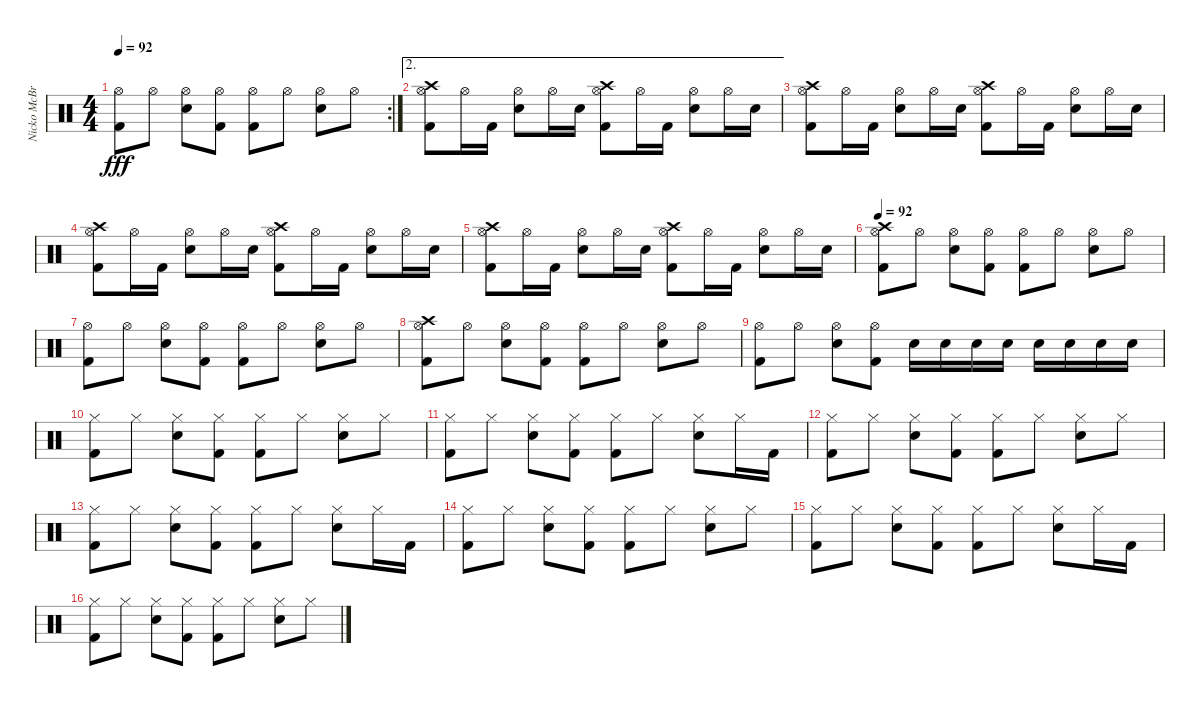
\track ("Nicko McBrain" "Nicko McBr") {instrument percussion}
\staff {score}
\articulation defaults
\rc 2
\ts (4 4)
\tempo 92
\clef neutral
\ks c
("Hi-Hat (open)" "Kick (hit) 2").8{dy fff} "Hi-Hat (open)".8 ("Hi-Hat (open)" "Snare (hit) 2").8 ("Hi-Hat (open)" "Kick (hit) 2").8 ("Hi-Hat (open)" "Kick (hit) 2").8 "Hi-Hat (open)".8 ("Hi-Hat (open)" "Snare (hit) 2").8 "Hi-Hat (open)".8 |
\ae 2
("Hi-Hat (open)" "Kick (hit) 2" "Crash high (hit)").8 "Hi-Hat (open)".16 "Kick (hit) 2".16 ("Hi-Hat (open)" "Snare (hit) 2").8 "Hi-Hat (open)".16 "Snare (hit) 2".16 ("Hi-Hat (open)" "Kick (hit) 2" "Crash high (hit)").8 "Hi-Hat (open)".16 "Kick (hit) 2".16 ("Hi-Hat (open)" "Snare (hit) 2").8 "Hi-Hat (open)".16 "Snare (hit) 2".16 |
("Hi-Hat (open)" "Kick (hit) 2" "Crash high (hit)").8 "Hi-Hat (open)".16 "Kick (hit) 2".16 ("Hi-Hat (open)" "Snare (hit) 2").8 "Hi-Hat (open)".16 "Snare (hit) 2".16 ("Hi-Hat (open)" "Kick (hit) 2" "Crash high (hit)").8 "Hi-Hat (open)".16 "Kick (hit) 2".16 ("Hi-Hat (open)" "Snare (hit) 2").8 "Hi-Hat (open)".16 "Snare (hit) 2".16 |
("Hi-Hat (open)" "Kick (hit) 2" "Crash high (hit)").8 "Hi-Hat (open)".16 "Kick (hit) 2".16 ("Hi-Hat (open)" "Snare (hit) 2").8 "Hi-Hat (open)".16 "Snare (hit) 2".16 ("Hi-Hat (open)" "Kick (hit) 2" "Crash high (hit)").8 "Hi-Hat (open)".16 "Kick (hit) 2".16 ("Hi-Hat (open)" "Snare (hit) 2").8 "Hi-Hat (open)".16 "Snare (hit) 2".16 |
("Hi-Hat (open)" "Kick (hit) 2" "Crash high (hit)").8 "Hi-Hat (open)".16 "Kick (hit) 2".16 ("Hi-Hat (open)" "Snare (hit) 2").8 "Hi-Hat (open)".16 "Snare (hit) 2".16 ("Hi-Hat (open)" "Kick (hit) 2" "Crash high (hit)").8 "Hi-Hat (open)".16 "Kick (hit) 2".16 ("Hi-Hat (open)" "Snare (hit) 2").8 "Hi-Hat (open)".16 "Snare (hit) 2".16 |
\tempo 92
("Hi-Hat (open)" "Kick (hit) 2" "Crash high (hit)").8 "Hi-Hat (open)".8 ("Hi-Hat (open)" "Snare (hit) 2").8 ("Hi-Hat (open)" "Kick (hit) 2").8 ("Hi-Hat (open)" "Kick (hit) 2").8 "Hi-Hat (open)".8 ("Hi-Hat (open)" "Snare (hit) 2").8 "Hi-Hat (open)".8 |
("Hi-Hat (open)" "Kick (hit) 2").8 "Hi-Hat (open)".8 ("Hi-Hat (open)" "Snare (hit) 2").8 ("Hi-Hat (open)" "Kick (hit) 2").8 ("Hi-Hat (open)" "Kick (hit) 2").8 "Hi-Hat (open)".8 ("Hi-Hat (open)" "Snare (hit) 2").8 "Hi-Hat (open)".8 |
("Hi-Hat (open)" "Kick (hit) 2" "Crash high (hit)").8 "Hi-Hat (open)".8 ("Hi-Hat (open)" "Snare (hit) 2").8 ("Hi-Hat (open)" "Kick (hit) 2").8 ("Hi-Hat (open)" "Kick (hit) 2").8 "Hi-Hat (open)".8 ("Hi-Hat (open)" "Snare (hit) 2").8 "Hi-Hat (open)".8 |
("Hi-Hat (open)" "Kick (hit) 2").8 "Hi-Hat (open)".8 ("Hi-Hat (open)" "Snare (hit) 2").8 ("Hi-Hat (open)" "Kick (hit) 2").8 "Snare (hit) 2".16 "Snare (hit) 2".16 "Snare (hit) 2".16 "Snare (hit) 2".16 "Snare (hit) 2".16 "Snare (hit) 2".16 "Snare (hit) 2".16 "Snare (hit) 2".16 |
("Hi-Hat (closed)" "Kick (hit) 2").8 "Hi-Hat (closed)".8 ("Hi-Hat (closed)" "Snare (hit) 2").8 ("Hi-Hat (closed)" "Kick (hit) 2").8 ("Hi-Hat (closed)" "Kick (hit) 2").8 "Hi-Hat (closed)".8 ("Hi-Hat (closed)" "Snare (hit) 2").8 "Hi-Hat (closed)".8 |
("Hi-Hat (closed)" "Kick (hit) 2").8 "Hi-Hat (closed)".8 ("Hi-Hat (closed)" "Snare (hit) 2").8 ("Hi-Hat (closed)" "Kick (hit) 2").8 ("Hi-Hat (closed)" "Kick (hit) 2").8 "Hi-Hat (closed)".8 ("Hi-Hat (closed)" "Snare (hit) 2").8 "Hi-Hat (closed)".16 "Kick (hit) 2".16 |
("Hi-Hat (closed)" "Kick (hit) 2").8 "Hi-Hat (closed)".8 ("Hi-Hat (closed)" "Snare (hit) 2").8 ("Hi-Hat (closed)" "Kick (hit) 2").8 ("Hi-Hat (closed)" "Kick (hit) 2").8 "Hi-Hat (closed)".8 ("Hi-Hat (closed)" "Snare (hit) 2").8 "Hi-Hat (closed)".8 |
("Hi-Hat (closed)" "Kick (hit) 2").8 "Hi-Hat (closed)".8 ("Hi-Hat (closed)" "Snare (hit) 2").8 ("Hi-Hat (closed)" "Kick (hit) 2").8 ("Hi-Hat (closed)" "Kick (hit) 2").8 "Hi-Hat (closed)".8 ("Hi-Hat (closed)" "Snare (hit) 2").8 "Hi-Hat (closed)".16 "Kick (hit) 2".16 |
("Hi-Hat (closed)" "Kick (hit) 2").8 "Hi-Hat (closed)".8 ("Hi-Hat (closed)" "Snare (hit) 2").8 ("Hi-Hat (closed)" "Kick (hit) 2").8 ("Hi-Hat (closed)" "Kick (hit) 2").8 "Hi-Hat (closed)".8 ("Hi-Hat (closed)" "Snare (hit) 2").8 "Hi-Hat (closed)".8 |
("Hi-Hat (closed)" "Kick (hit) 2").8 "Hi-Hat (closed)".8 ("Hi-Hat (closed)" "Snare (hit) 2").8 ("Hi-Hat (closed)" "Kick (hit) 2").8 ("Hi-Hat (closed)" "Kick (hit) 2").8 "Hi-Hat (closed)".8 ("Hi-Hat (closed)" "Snare (hit) 2").8 "Hi-Hat (closed)".16 "Kick (hit) 2".16 |
("Hi-Hat (closed)" "Kick (hit) 2").8 "Hi-Hat (closed)".8 ("Hi-Hat (closed)" "Snare (hit) 2").8 ("Hi-Hat (closed)" "Kick (hit) 2").8 ("Hi-Hat (closed)" "Kick (hit) 2").8 "Hi-Hat (closed)".8 ("Hi-Hat (closed)" "Snare (hit) 2").8 "Hi-Hat (closed)".8
